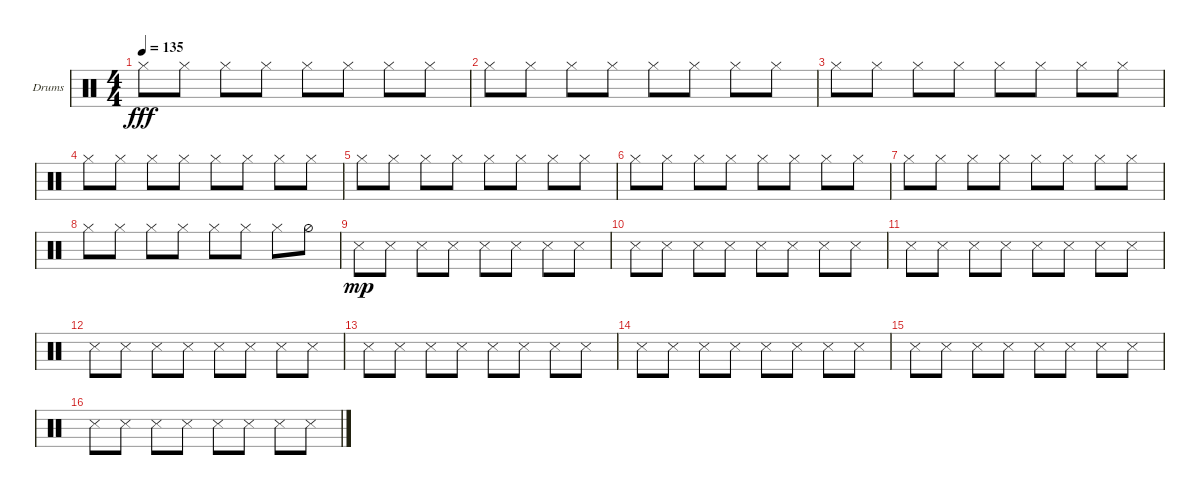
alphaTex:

\defaultSystemsLayout 4
\bracketExtendMode groupsimilarinstruments
\firstSystemTrackNameOrientation horizontal
\otherSystemsTrackNameOrientation horizontal
\track ("Helders" "Drums") {instrument percussion}
\staff {score}
\articulation defaults
\ts (4 4)
\tempo 135
\clef neutral
\ks c "Hi-Hat (closed)".8{dy fff} "Hi-Hat (closed)".8 "Hi-Hat (closed)".8 "Hi-Hat (closed)".8 "Hi-Hat (closed)".8 "Hi-Hat (closed)".8 "Hi-Hat (closed)".8 "Hi-Hat (closed)".8
|
"Hi-Hat (closed)".8 "Hi-Hat (closed)".8 "Hi-Hat (closed)".8 "Hi-Hat (closed)".8 "Hi-Hat (closed)".8 "Hi-Hat (closed)".8 "Hi-Hat (closed)".8 "Hi-Hat (closed)".8 |
"Hi-Hat (closed)".8 "Hi-Hat (closed)".8 "Hi-Hat (closed)".8 "Hi-Hat (closed)".8 "Hi-Hat (closed)".8 "Hi-Hat (closed)".8 "Hi-Hat (closed)".8 "Hi-Hat (closed)".8 |
"Hi-Hat (closed)".8 "Hi-Hat (closed)".8 "Hi-Hat (closed)".8 "Hi-Hat (closed)".8 "Hi-Hat (closed)".8 "Hi-Hat (closed)".8 "Hi-Hat (closed)".8 "Hi-Hat (closed)".8 |
"Hi-Hat (closed)".8 "Hi-Hat (closed)".8 "Hi-Hat (closed)".8 "Hi-Hat (closed)".8 "Hi-Hat (closed)".8 "Hi-Hat (closed)".8 "Hi-Hat (closed)".8 "Hi-Hat (closed)".8 |
"Hi-Hat (closed)".8 "Hi-Hat (closed)".8 "Hi-Hat (closed)".8 "Hi-Hat (closed)".8 "Hi-Hat (closed)".8 "Hi-Hat (closed)".8 "Hi-Hat (closed)".8 "Hi-Hat (closed)".8 |
"Hi-Hat (closed)".8 "Hi-Hat (closed)".8 "Hi-Hat (closed)".8 "Hi-Hat (closed)".8 "Hi-Hat (closed)".8 "Hi-Hat (closed)".8 "Hi-Hat (closed)".8 "Hi-Hat (closed)".8 |
"Hi-Hat (closed)".8 "Hi-Hat (closed)".8 "Hi-Hat (closed)".8 "Hi-Hat (closed)".8 "Hi-Hat (closed)".8 "Hi-Hat (closed)".8 "Hi-Hat (closed)".8 "Hi-Hat (half)".8 |
"Snare (side stick) 3".8{dy mp} "Snare (side stick) 3".8 "Snare (side stick) 3".8 "Snare (side stick) 3".8 "Snare (side stick) 3".8 "Snare (side stick) 3".8 "Snare (side stick) 3".8 "Snare (side stick) 3".8 |
"Snare (side stick) 3".8 "Snare (side stick) 3".8 "Snare (side stick) 3".8 "Snare (side stick) 3".8 "Snare (side stick) 3".8 "Snare (side stick) 3".8 "Snare (side stick) 3".8 "Snare (side stick) 3".8 |
"Snare (side stick) 3".8 "Snare (side stick) 3".8 "Snare (side stick) 3".8 "Snare (side stick) 3".8 "Snare (side stick) 3".8 "Snare (side stick) 3".8 "Snare (side stick) 3".8 "Snare (side stick) 3".8 |
"Snare (side stick) 3".8 "Snare (side stick) 3".8 "Snare (side stick) 3".8 "Snare (side stick) 3".8 "Snare (side stick) 3".8 "Snare (side stick) 3".8 "Snare (side stick) 3".8 "Snare (side stick) 3".8 |
"Snare (side stick) 3".8 "Snare (side stick) 3".8 "Snare (side stick) 3".8 "Snare (side stick) 3".8 "Snare (side stick) 3".8 "Snare (side stick) 3".8 "Snare (side stick) 3".8 "Snare (side stick) 3".8 |
"Snare (side stick) 3".8 "Snare (side stick) 3".8 "Snare (side stick) 3".8 "Snare (side stick) 3".8 "Snare (side stick) 3".8 "Snare (side stick) 3".8 "Snare (side stick) 3".8 "Snare (side stick) 3".8 |
"Snare (side stick) 3".8 "Snare (side stick) 3".8 "Snare (side stick) 3".8 "Snare (side stick) 3".8 "Snare (side stick) 3".8 "Snare (side stick) 3".8 "Snare (side stick) 3".8 "Snare (side stick) 3".8 |
"Snare (side stick) 3".8 "Snare (side stick) 3".8 "Snare (side stick) 3".8 "Snare (side stick) 3".8 "Snare (side stick) 3".8 "Snare (side stick) 3".8 "Snare (side stick) 3".8 "Snare (side stick) 3".8
